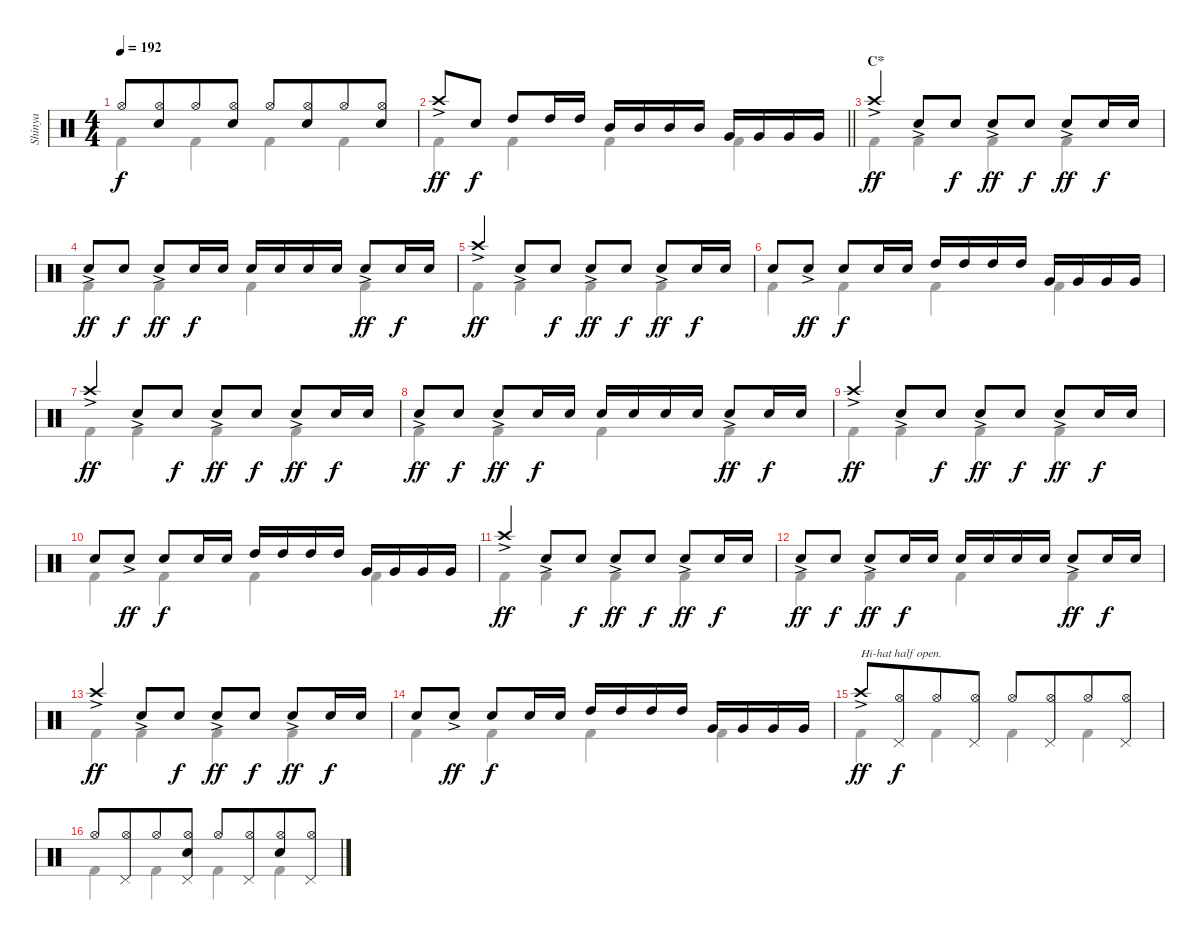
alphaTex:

\track ("Shinya" "Shinya") {instrument percussion}
\staff {score}
\articulation defaults
\voice
\ts (4 4)
\tempo 192
\clef neutral
\ks c "Hi-Hat (open)".8{dy f}
("Hi-Hat (open)" "Snare (hit) 2").8{beam merge} "Hi-Hat (open)".8 ("Hi-Hat (open)" "Snare (hit) 2").8 "Hi-Hat (open)".8 ("Hi-Hat (open)" "Snare (hit) 2").8{beam merge} "Hi-Hat (open)".8 ("Hi-Hat (open)" "Snare (hit) 2").8 |
\barLineRight lightlight "Crash high (hit)"{ac}.8{dy ff} "Snare (hit) 2".8{dy f} "High Tom (hit)".8 "High Tom (hit)".16 "High Tom (hit)".16 "Mid Tom (hit)".16 "Mid Tom (hit)".16 "Mid Tom (hit)".16 "Mid Tom (hit)".16 "Very Low Tom (hit)".16 "Very Low Tom (hit)".16 "Very Low Tom (hit)".16 "Very Low Tom (hit)".16
|
\section ("" "C*")
"Crash high (hit)"{ac}.4{dy ff} "Snare (hit) 2"{ac}.8 "Snare (hit) 2".8{dy f} "Snare (hit) 2"{ac}.8{dy ff} "Snare (hit) 2".8{dy f} "Snare (hit) 2"{ac}.8{dy ff} "Snare (hit) 2".16{dy f} "Snare (hit) 2".16 |
"Snare (hit) 2"{ac}.8{dy ff} "Snare (hit) 2".8{dy f} "Snare (hit) 2"{ac}.8{dy ff} "Snare (hit) 2".16{dy f} "Snare (hit) 2".16 "Snare (hit) 2".16 "Snare (hit) 2".16 "Snare (hit) 2".16 "Snare (hit) 2".16 "Snare (hit) 2"{ac}.8{dy ff} "Snare (hit) 2".16{dy f} "Snare (hit) 2".16 |
"Crash high (hit)"{ac}.4{dy ff} "Snare (hit) 2"{ac}.8 "Snare (hit) 2".8{dy f} "Snare (hit) 2"{ac}.8{dy ff} "Snare (hit) 2".8{dy f} "Snare (hit) 2"{ac}.8{dy ff} "Snare (hit) 2".16{dy f} "Snare (hit) 2".16 |
"Snare (hit) 2".8 "Snare (hit) 2"{ac}.8{dy ff} "Snare (hit) 2".8{dy f} "Snare (hit) 2".16 "Snare (hit) 2".16 "High Tom (hit)".16 "High Tom (hit)".16 "High Tom (hit)".16 "High Tom (hit)".16 "Very Low Tom (hit)".16 "Very Low Tom (hit)".16 "Very Low Tom (hit)".16 "Very Low Tom (hit)".16 |
"Crash high (hit)"{ac}.4{dy ff} "Snare (hit) 2"{ac}.8 "Snare (hit) 2".8{dy f} "Snare (hit) 2"{ac}.8{dy ff} "Snare (hit) 2".8{dy f} "Snare (hit) 2"{ac}.8{dy ff} "Snare (hit) 2".16{dy f} "Snare (hit) 2".16 |
"Snare (hit) 2"{ac}.8{dy ff} "Snare (hit) 2".8{dy f} "Snare (hit) 2"{ac}.8{dy ff} "Snare (hit) 2".16{dy f} "Snare (hit) 2".16 "Snare (hit) 2".16 "Snare (hit) 2".16 "Snare (hit) 2".16 "Snare (hit) 2".16 "Snare (hit) 2"{ac}.8{dy ff} "Snare (hit) 2".16{dy f} "Snare (hit) 2".16 |
"Crash high (hit)"{ac}.4{dy ff} "Snare (hit) 2"{ac}.8 "Snare (hit) 2".8{dy f} "Snare (hit) 2"{ac}.8{dy ff} "Snare (hit) 2".8{dy f} "Snare (hit) 2"{ac}.8{dy ff} "Snare (hit) 2".16{dy f} "Snare (hit) 2".16 |
"Snare (hit) 2".8 "Snare (hit) 2"{ac}.8{dy ff} "Snare (hit) 2".8{dy f} "Snare (hit) 2".16 "Snare (hit) 2".16 "High Tom (hit)".16 "High Tom (hit)".16 "High Tom (hit)".16 "High Tom (hit)".16 "Very Low Tom (hit)".16 "Very Low Tom (hit)".16 "Very Low Tom (hit)".16 "Very Low Tom (hit)".16 |
"Crash high (hit)"{ac}.4{dy ff} "Snare (hit) 2"{ac}.8 "Snare (hit) 2".8{dy f} "Snare (hit) 2"{ac}.8{dy ff} "Snare (hit) 2".8{dy f} "Snare (hit) 2"{ac}.8{dy ff} "Snare (hit) 2".16{dy f} "Snare (hit) 2".16 |
"Snare (hit) 2"{ac}.8{dy ff} "Snare (hit) 2".8{dy f} "Snare (hit) 2"{ac}.8{dy ff} "Snare (hit) 2".16{dy f} "Snare (hit) 2".16 "Snare (hit) 2".16 "Snare (hit) 2".16 "Snare (hit) 2".16 "Snare (hit) 2".16 "Snare (hit) 2"{ac}.8{dy ff} "Snare (hit) 2".16{dy f} "Snare (hit) 2".16 |
"Crash high (hit)"{ac}.4{dy ff} "Snare (hit) 2"{ac}.8 "Snare (hit) 2".8{dy f} "Snare (hit) 2"{ac}.8{dy ff} "Snare (hit) 2".8{dy f} "Snare (hit) 2"{ac}.8{dy ff} "Snare (hit) 2".16{dy f} "Snare (hit) 2".16 |
"Snare (hit) 2".8 "Snare (hit) 2"{ac}.8{dy ff} "Snare (hit) 2".8{dy f} "Snare (hit) 2".16 "Snare (hit) 2".16 "High Tom (hit)".16 "High Tom (hit)".16 "High Tom (hit)".16 "High Tom (hit)".16 "Very Low Tom (hit)".16 "Very Low Tom (hit)".16 "Very Low Tom (hit)".16 "Very Low Tom (hit)".16 |
"Crash high (hit)"{ac}.8{txt "Hi-hat half open." dy ff} ("Hi-Hat (open)" "Pedal Hi-Hat (hit)").8{dy f beam merge} "Hi-Hat (open)".8 ("Hi-Hat (open)" "Pedal Hi-Hat (hit)").8 "Hi-Hat (open)".8 ("Hi-Hat (open)" "Pedal Hi-Hat (hit)").8{beam merge} "Hi-Hat (open)".8 ("Hi-Hat (open)" "Pedal Hi-Hat (hit)").8 |
"Hi-Hat (open)".8 ("Hi-Hat (open)" "Pedal Hi-Hat (hit)").8{beam merge} "Hi-Hat (open)".8 ("Hi-Hat (open)" "Pedal Hi-Hat (hit)" "Snare (hit) 2").8 "Hi-Hat (open)".8 ("Hi-Hat (open)" "Pedal Hi-Hat (hit)").8{beam merge} ("Hi-Hat (open)" "Snare (hit) 2").8 ("Hi-Hat (open)" "Pedal Hi-Hat (hit)").8
\voice
\clef neutral
\ottava regular
\simile none
\ks c "Kick (hit) 2".4{dy f} "Kick (hit) 2".4 "Kick (hit) 2".4 "Kick (hit) 2".4
|
\barLineRight lightlight "Kick (hit) 2".4 "Kick (hit) 2".4 "Kick (hit) 2".4 "Kick (hit) 2".4
|
"Kick (hit) 2".4 "Kick (hit) 2".4 "Kick (hit) 2".4 "Kick (hit) 2".4 |
"Kick (hit) 2".4 "Kick (hit) 2".4 "Kick (hit) 2".4 "Kick (hit) 2".4 |
"Kick (hit) 2".4 "Kick (hit) 2".4 "Kick (hit) 2".4 "Kick (hit) 2".4 |
"Kick (hit) 2".4 "Kick (hit) 2".4 "Kick (hit) 2".4 "Kick (hit) 2".4 |
"Kick (hit) 2".4 "Kick (hit) 2".4 "Kick (hit) 2".4 "Kick (hit) 2".4 |
"Kick (hit) 2".4 "Kick (hit) 2".4 "Kick (hit) 2".4 "Kick (hit) 2".4 |
"Kick (hit) 2".4 "Kick (hit) 2".4 "Kick (hit) 2".4 "Kick (hit) 2".4 |
"Kick (hit) 2".4 "Kick (hit) 2".4 "Kick (hit) 2".4 "Kick (hit) 2".4 |
"Kick (hit) 2".4 "Kick (hit) 2".4 "Kick (hit) 2".4 "Kick (hit) 2".4 |
"Kick (hit) 2".4 "Kick (hit) 2".4 "Kick (hit) 2".4 "Kick (hit) 2".4 |
"Kick (hit) 2".4 "Kick (hit) 2".4 "Kick (hit) 2".4 "Kick (hit) 2".4 |
"Kick (hit) 2".4 "Kick (hit) 2".4 "Kick (hit) 2".4 "Kick (hit) 2".4 |
"Kick (hit) 2".4 "Kick (hit) 2".4 "Kick (hit) 2".4 "Kick (hit) 2".4 |
"Kick (hit) 2".4 "Kick (hit) 2".4 "Kick (hit) 2".4 "Kick (hit) 2".4
